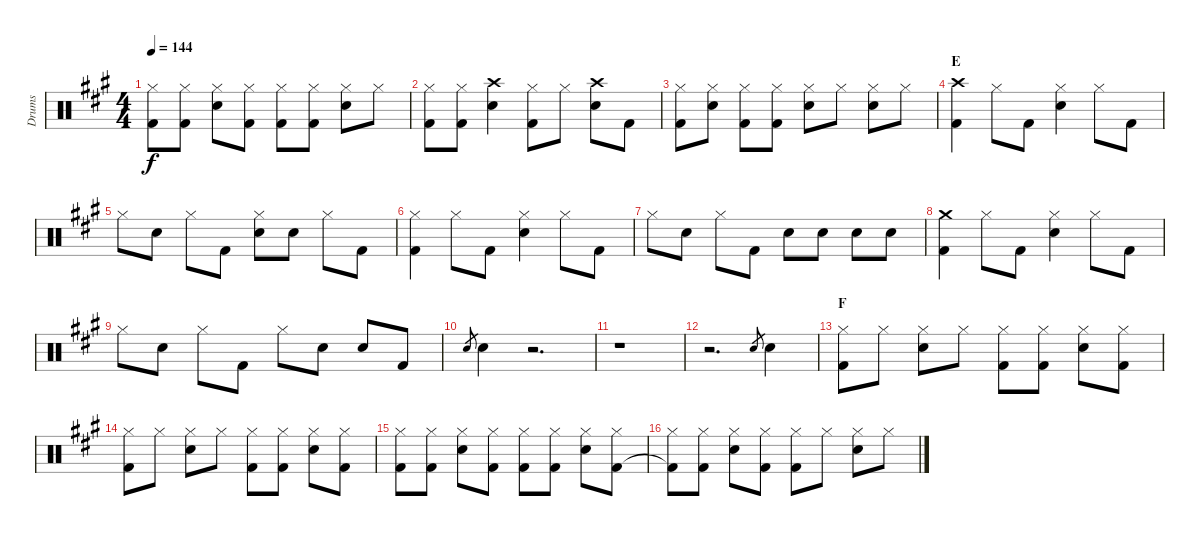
\track ("Drums" "Drums") {instrument percussion}
\staff {score}
\articulation defaults
\ts (4 4)
\tempo 144
\clef neutral
\ks a
("Hi-Hat (closed)" "Kick (hit) 2").8{dy f} ("Hi-Hat (closed)" "Kick (hit) 2").8 ("Hi-Hat (closed)" "Snare (hit) 2").8 ("Hi-Hat (closed)" "Kick (hit) 2").8 ("Hi-Hat (closed)" "Kick (hit) 2").8 ("Hi-Hat (closed)" "Kick (hit) 2").8 ("Hi-Hat (closed)" "Snare (hit) 2").8 "Hi-Hat (closed)".8 |
("Hi-Hat (closed)" "Kick (hit) 2").8 ("Hi-Hat (closed)" "Kick (hit) 2").8 ("Crash high (hit)" "Snare (hit) 2").4 ("Hi-Hat (closed)" "Kick (hit) 2").8 "Hi-Hat (closed)".8 ("Crash high (hit)" "Snare (hit) 2").8 "Kick (hit) 2".8 |
("Hi-Hat (closed)" "Kick (hit) 2").8 ("Hi-Hat (closed)" "Snare (hit) 2").8 ("Hi-Hat (closed)" "Kick (hit) 2").8 ("Hi-Hat (closed)" "Kick (hit) 2").8 ("Hi-Hat (closed)" "Snare (hit) 2").8 "Hi-Hat (closed)".8 ("Hi-Hat (closed)" "Snare (hit) 2").8 "Hi-Hat (closed)".8 |
\section ("" "E")
("Crash high (hit)" "Kick (hit) 2").4 "Hi-Hat (closed)".8 "Kick (hit) 2".8 ("Hi-Hat (closed)" "Snare (hit) 2").4 "Hi-Hat (closed)".8 "Kick (hit) 2".8 |
"Hi-Hat (closed)".8 "Snare (hit) 2".8 "Hi-Hat (closed)".8 "Kick (hit) 2".8 ("Hi-Hat (closed)" "Snare (hit) 2").8 "Snare (hit) 2".8 "Hi-Hat (closed)".8 "Kick (hit) 2".8 |
("Hi-Hat (closed)" "Kick (hit) 2").4 "Hi-Hat (closed)".8 "Kick (hit) 2".8 ("Hi-Hat (closed)" "Snare (hit) 2").4 "Hi-Hat (closed)".8 "Kick (hit) 2".8 |
"Hi-Hat (closed)".8 "Snare (hit) 2".8 "Hi-Hat (closed)".8 "Kick (hit) 2".8 "Snare (hit) 2".8 "Snare (hit) 2".8 "Snare (hit) 2".8 "Snare (hit) 2".8 |
("Crash medium (hit)" "Kick (hit) 2").4 "Hi-Hat (closed)".8 "Kick (hit) 2".8 ("Hi-Hat (closed)" "Snare (hit) 2").4 "Hi-Hat (closed)".8 "Kick (hit) 2".8 |
"Hi-Hat (closed)".8 "Snare (hit) 2".8 "Hi-Hat (closed)".8 "Kick (hit) 2".8 "Hi-Hat (closed)".8 "Snare (hit) 2".8 "Snare (hit) 2".8 "Kick (hit) 2".8 |
"Snare (hit) 2".8{gr} "Snare (hit) 2".4 r.2{d} |
r.1 |
r.2{d} "Snare (hit) 2".8{gr} "Snare (hit) 2".4 |
\section ("" "F")
("Hi-Hat (closed)" "Kick (hit) 2").8 "Hi-Hat (closed)".8 ("Hi-Hat (closed)" "Snare (hit) 2").8 "Hi-Hat (closed)".8 ("Hi-Hat (closed)" "Kick (hit) 2").8 ("Hi-Hat (closed)" "Kick (hit) 2").8 ("Hi-Hat (closed)" "Snare (hit) 2").8 ("Hi-Hat (closed)" "Kick (hit) 2").8 |
("Hi-Hat (closed)" "Kick (hit) 2").8 "Hi-Hat (closed)".8 ("Hi-Hat (closed)" "Snare (hit) 2").8 "Hi-Hat (closed)".8 ("Hi-Hat (closed)" "Kick (hit) 2").8 ("Hi-Hat (closed)" "Kick (hit) 2").8 ("Hi-Hat (closed)" "Snare (hit) 2").8 ("Hi-Hat (closed)" "Kick (hit) 2").8 |
("Hi-Hat (closed)" "Kick (hit) 2").8 ("Hi-Hat (closed)" "Kick (hit) 2").8 ("Hi-Hat (closed)" "Snare (hit) 2").8 ("Hi-Hat (closed)" "Kick (hit) 2").8 ("Hi-Hat (closed)" "Kick (hit) 2").8 ("Hi-Hat (closed)" "Kick (hit) 2").8 ("Hi-Hat (closed)" "Snare (hit) 2").8 ("Hi-Hat (closed)" "Kick (hit) 2").8 |
("Hi-Hat (closed)" "Kick (hit) 2"{t}).8 ("Hi-Hat (closed)" "Kick (hit) 2").8 ("Hi-Hat (closed)" "Snare (hit) 2").8 ("Hi-Hat (closed)" "Kick (hit) 2").8 ("Hi-Hat (closed)" "Kick (hit) 2").8 "Hi-Hat (closed)".8 ("Hi-Hat (closed)" "Snare (hit) 2").8 "Hi-Hat (closed)".8
